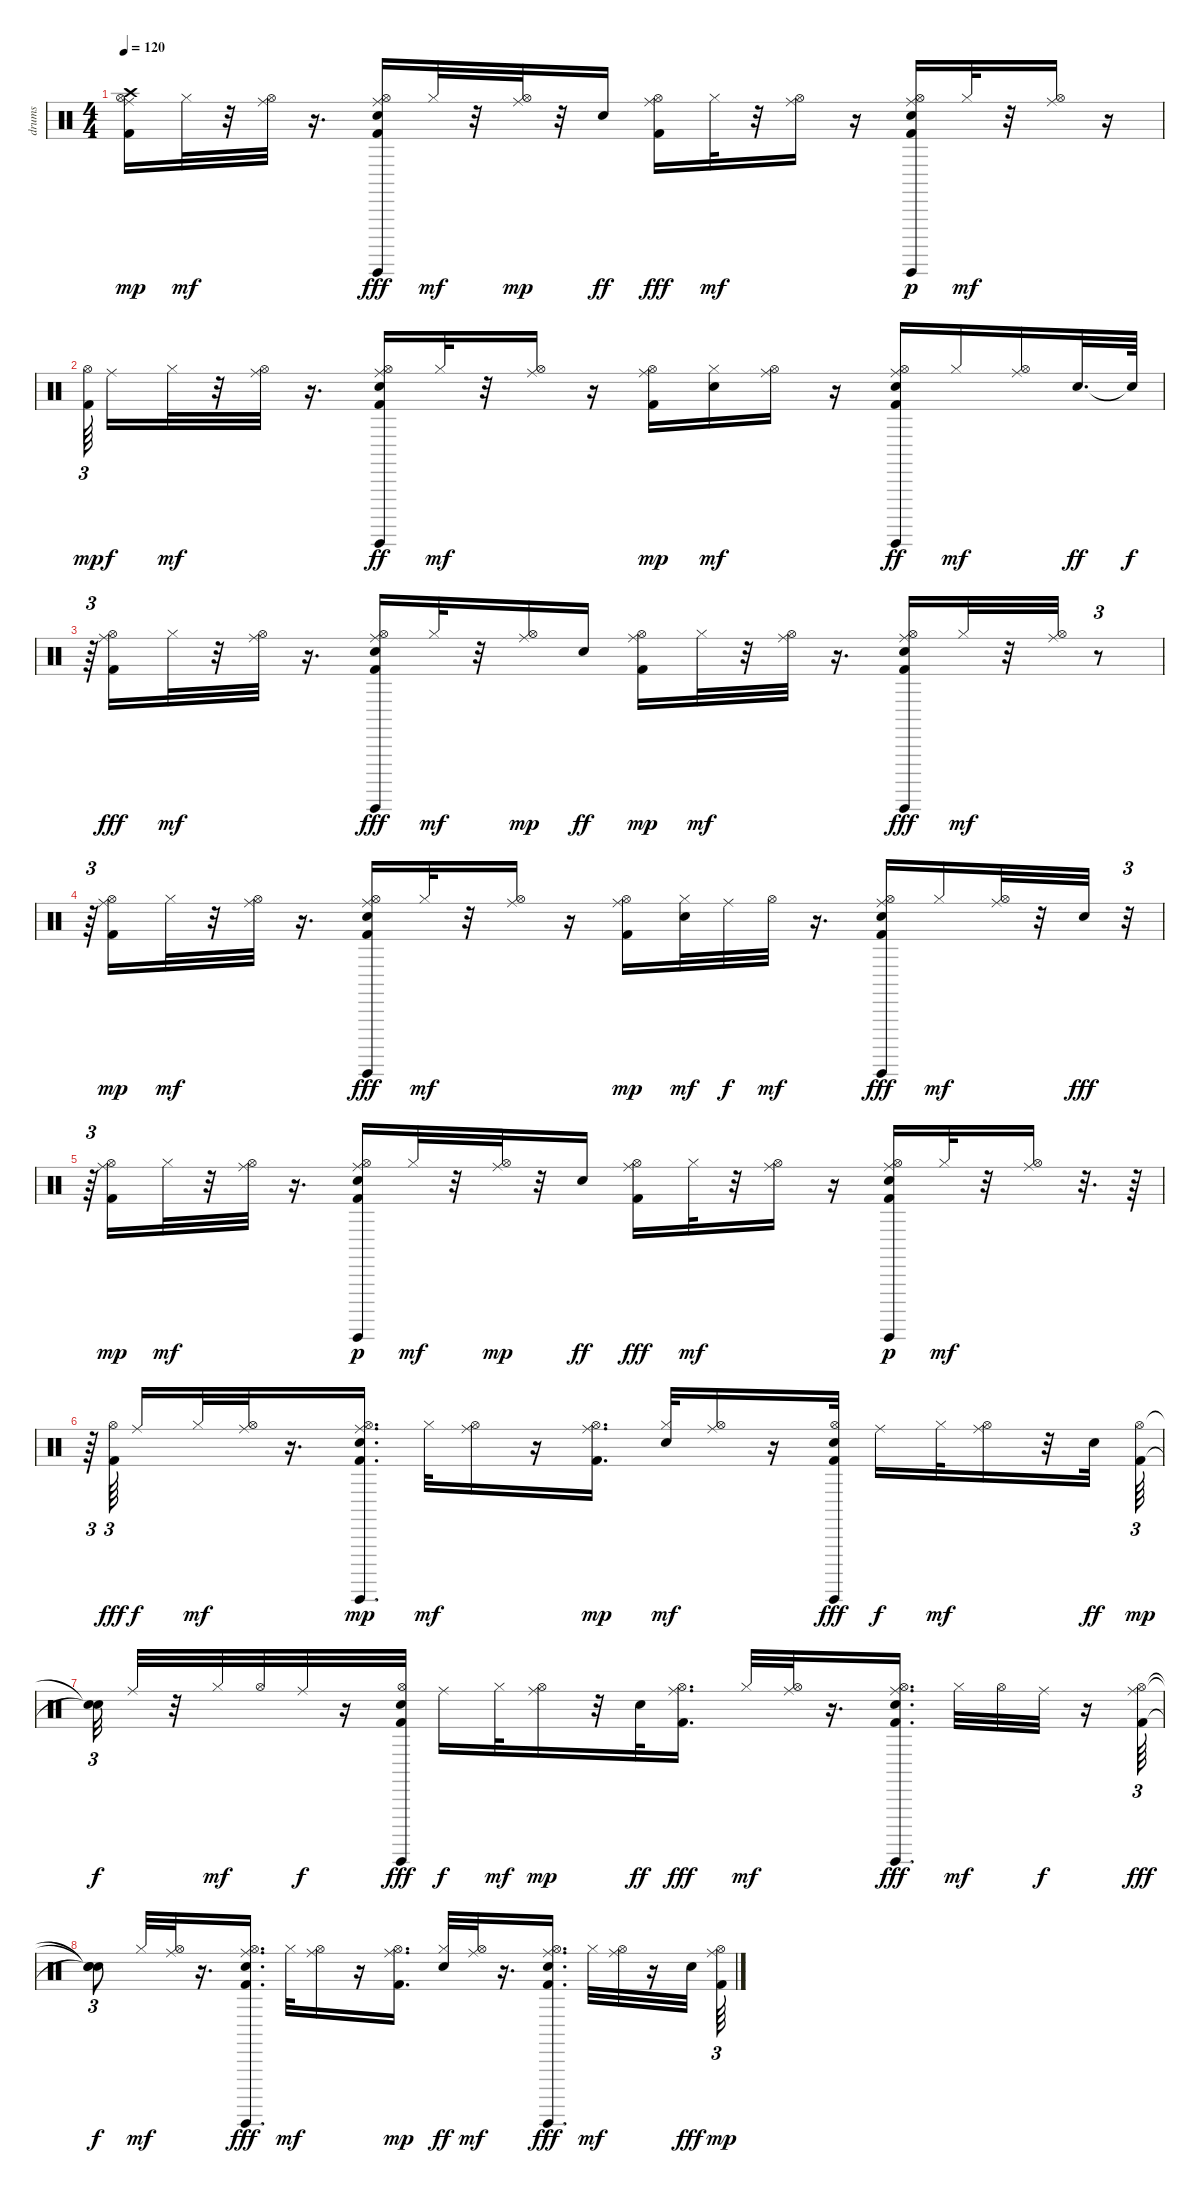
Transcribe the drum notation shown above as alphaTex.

\track ("drums                               " "drums     ") {instrument percussion}
\staff {score}
\articulation defaults
\ts (4 4)
\tempo 120
\clef neutral
\ks c
("Kick (hit) 2" "Crash high (hit)" "Hi-Hat (open)" "Ride (middle)").16{dy mp} "Hi-Hat (closed)".32{dy mf} r.32 ("Ride (middle)" "Hi-Hat (open)").32 r.16{d} ("Electric Snare (hit)" "Hi-Hat (open)" "Guiro (hit)" "Kick (hit) 2" "Ride (middle)").16{dy fff} "Hi-Hat (closed)".32{dy mf} r.32 ("Ride (middle)" "Hi-Hat (open)").32{dy mp} r.32 "Electric Snare (hit)".16{dy ff} ("Hi-Hat (open)" "Kick (hit) 2" "Ride (middle)").16{dy fff} "Hi-Hat (closed)".32{dy mf} r.32 ("Ride (middle)" "Hi-Hat (open)").16 r.16 ("Electric Snare (hit)" "Kick (hit) 2" "Guiro (hit)" "Hi-Hat (open)" "Ride (middle)").16{dy p} "Hi-Hat (closed)".32{dy mf} r.32 ("Hi-Hat (open)" "Ride (middle)").16 r.16 |
("Kick (hit) 2" "Hi-Hat (open)").64{tu (3 2) dy mp beam splitsecondary} "Ride (middle)".16{dy f} "Hi-Hat (closed)".32{dy mf} r.32 ("Hi-Hat (open)" "Ride (middle)").32 r.16{d} ("Hi-Hat (open)" "Kick (hit) 2" "Electric Snare (hit)" "Guiro (hit)" "Ride (middle)").16{dy ff} "Hi-Hat (closed)".32{dy mf} r.32 ("Hi-Hat (open)" "Ride (middle)").16 r.16 ("Ride (middle)" "Kick (hit) 2" "Hi-Hat (open)").16{dy mp} ("Electric Snare (hit)" "Hi-Hat (closed)").16{dy mf} ("Hi-Hat (open)" "Ride (middle)").16 r.16 ("Hi-Hat (open)" "Kick (hit) 2" "Electric Snare (hit)" "Guiro (hit)" "Ride (middle)").16{dy ff} "Hi-Hat (closed)".16{dy mf} ("Hi-Hat (open)" "Ride (middle)").16 "Electric Snare (hit)".32{d dy ff} "Snare (hit)"{t}.64{dy f} |
r.64{tu (3 2)} ("Hi-Hat (open)" "Kick (hit) 2" "Ride (middle)").16{dy fff} "Hi-Hat (closed)".32{dy mf} r.32 ("Hi-Hat (open)" "Ride (middle)").32 r.16{d} ("Guiro (hit)" "Electric Snare (hit)" "Hi-Hat (open)" "Kick (hit) 2" "Ride (middle)").16{dy fff} "Hi-Hat (closed)".32{dy mf} r.32 ("Hi-Hat (open)" "Ride (middle)").16{dy mp} "Electric Snare (hit)".16{dy ff} ("Ride (middle)" "Kick (hit) 2" "Hi-Hat (open)").16{dy mp} "Hi-Hat (closed)".32{dy mf} r.32 ("Hi-Hat (open)" "Ride (middle)").32 r.16{d} ("Hi-Hat (open)" "Electric Snare (hit)" "Guiro (hit)" "Kick (hit) 2" "Ride (middle)").16{dy fff} "Hi-Hat (closed)".32{dy mf} r.32 ("Hi-Hat (open)" "Ride (middle)").32 r.8{tu (3 2)} |
r.64{tu (3 2)} ("Kick (hit) 2" "Hi-Hat (open)" "Ride (middle)").16{dy mp} "Hi-Hat (closed)".32{dy mf} r.32 ("Ride (middle)" "Hi-Hat (open)").32 r.16{d} ("Electric Snare (hit)" "Guiro (hit)" "Hi-Hat (open)" "Kick (hit) 2" "Ride (middle)").16{dy fff} "Hi-Hat (closed)".32{dy mf} r.32 ("Ride (middle)" "Hi-Hat (open)").16 r.16 ("Ride (middle)" "Kick (hit) 2" "Hi-Hat (open)").16{dy mp} ("Electric Snare (hit)" "Hi-Hat (closed)").32{dy mf} "Ride (middle)".32{dy f} "Hi-Hat (open)".32{dy mf} r.16{d} ("Ride (middle)" "Electric Snare (hit)" "Hi-Hat (open)" "Kick (hit) 2" "Guiro (hit)").16{dy fff} "Hi-Hat (closed)".16{dy mf} ("Ride (middle)" "Hi-Hat (open)").32 r.32 "Electric Snare (hit)".32{dy fff} r.32{tu (3 2)} |
r.64{tu (3 2)} ("Kick (hit) 2" "Ride (middle)" "Hi-Hat (open)").16{dy mp} "Hi-Hat (closed)".32{dy mf} r.32 ("Ride (middle)" "Hi-Hat (open)").32 r.16{d} ("Kick (hit) 2" "Electric Snare (hit)" "Guiro (hit)" "Hi-Hat (open)" "Ride (middle)").16{dy p} "Hi-Hat (closed)".32{dy mf} r.32 ("Ride (middle)" "Hi-Hat (open)").32{dy mp} r.32 "Electric Snare (hit)".16{dy ff} ("Hi-Hat (open)" "Kick (hit) 2" "Ride (middle)").16{dy fff} "Hi-Hat (closed)".32{dy mf} r.32 ("Ride (middle)" "Hi-Hat (open)").16 r.16 ("Kick (hit) 2" "Electric Snare (hit)" "Hi-Hat (open)" "Guiro (hit)" "Ride (middle)").16{dy p} "Hi-Hat (closed)".32{dy mf} r.32 ("Hi-Hat (open)" "Ride (middle)").16 r.32{d} r.64 |
r.64{tu (3 2)} ("Hi-Hat (open)" "Kick (hit) 2").64{tu (3 2) dy fff beam splitsecondary} "Ride (middle)".16{dy f} "Hi-Hat (closed)".32{dy mf} ("Hi-Hat (open)" "Ride (middle)").32 r.16{d} ("Guiro (hit)" "Electric Snare (hit)" "Kick (hit) 2" "Hi-Hat (open)" "Ride (middle)").16{d dy mp} "Hi-Hat (closed)".32{dy mf} ("Hi-Hat (open)" "Ride (middle)").16 r.16 ("Ride (middle)" "Kick (hit) 2" "Hi-Hat (open)").16{d dy mp} ("Electric Snare (hit)" "Hi-Hat (closed)").32{dy mf} ("Hi-Hat (open)" "Ride (middle)").16 r.16 ("Guiro (hit)" "Electric Snare (hit)" "Hi-Hat (open)" "Kick (hit) 2").32{dy fff} "Ride (middle)".16{dy f} "Hi-Hat (closed)".32{dy mf} ("Hi-Hat (open)" "Ride (middle)").16 r.32 "Electric Snare (hit)".32{dy ff} ("Kick (hit) 2" "Hi-Hat (open)").64{tu (3 2) dy mp} |
("Snare (hit)"{t} "Snare (hit)"{t}).32{tu (3 2) dy f} "Ride (middle)".32 r.32 "Hi-Hat (closed)".32{dy mf} "Hi-Hat (open)".32 "Ride (middle)".32{dy f} r.16 ("Guiro (hit)" "Electric Snare (hit)" "Hi-Hat (open)" "Kick (hit) 2").32{dy fff} "Ride (middle)".16{dy f} "Hi-Hat (closed)".32{dy mf} ("Hi-Hat (open)" "Ride (middle)").16{dy mp} r.32 "Electric Snare (hit)".32{dy ff} ("Ride (middle)" "Hi-Hat (open)" "Kick (hit) 2").16{d dy fff} "Hi-Hat (closed)".32{dy mf} ("Hi-Hat (open)" "Ride (middle)").32 r.16{d} ("Hi-Hat (open)" "Electric Snare (hit)" "Kick (hit) 2" "Guiro (hit)" "Ride (middle)").16{d dy fff} "Hi-Hat (closed)".32{dy mf} "Hi-Hat (open)".32 "Ride (middle)".32{dy f} r.16 ("Hi-Hat (open)" "Kick (hit) 2" "Ride (middle)").64{tu (3 2) dy fff} |
("Snare (hit)"{t} "Snare (hit)"{t} "Snare (hit)"{t}).8{tu (3 2) dy f} "Hi-Hat (closed)".32{dy mf} ("Ride (middle)" "Hi-Hat (open)").32 r.16{d} ("Hi-Hat (open)" "Electric Snare (hit)" "Guiro (hit)" "Kick (hit) 2" "Ride (middle)").16{d dy fff} "Hi-Hat (closed)".32{dy mf} ("Ride (middle)" "Hi-Hat (open)").16 r.16 ("Ride (middle)" "Kick (hit) 2" "Hi-Hat (open)").16{d dy mp} ("Hi-Hat (closed)" "Electric Snare (hit)").32{dy ff} ("Ride (middle)" "Hi-Hat (open)").32{dy mf} r.16{d} ("Ride (middle)" "Hi-Hat (open)" "Electric Snare (hit)" "Guiro (hit)" "Kick (hit) 2").16{d dy fff} "Hi-Hat (closed)".32{dy mf} ("Ride (middle)" "Hi-Hat (open)").32 r.16 "Electric Snare (hit)".32{dy fff} ("Kick (hit) 2" "Ride (middle)" "Hi-Hat (open)").64{tu (3 2) dy mp}
